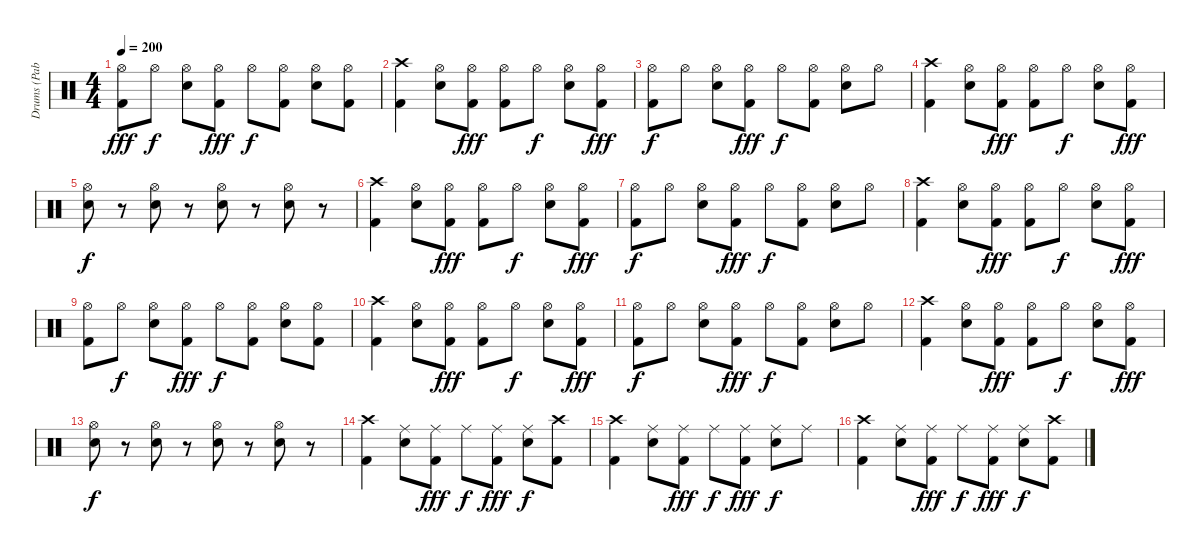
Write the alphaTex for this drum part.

\track ("Drums (Pablo)" "Drums (Pab") {instrument percussion}
\staff {score}
\articulation defaults
\ts (4 4)
\tempo 200
\clef neutral
\ks c
("Hi-Hat (open)" "Kick (hit) 2").8{dy fff} "Hi-Hat (open)".8{dy f} ("Hi-Hat (open)" "Electric Snare (hit)").8 ("Hi-Hat (open)" "Kick (hit) 2").8{dy fff} "Hi-Hat (open)".8{dy f} ("Hi-Hat (open)" "Kick (hit) 2").8 ("Hi-Hat (open)" "Electric Snare (hit)").8 ("Hi-Hat (open)" "Kick (hit) 2").8 |
("Crash high (hit)" "Kick (hit) 2").4 ("Hi-Hat (open)" "Electric Snare (hit)").8 ("Hi-Hat (open)" "Kick (hit) 2").8{dy fff} ("Hi-Hat (open)" "Kick (hit) 2").8 "Hi-Hat (open)".8{dy f} ("Hi-Hat (open)" "Electric Snare (hit)").8 ("Hi-Hat (open)" "Kick (hit) 2").8{dy fff} |
("Hi-Hat (open)" "Kick (hit) 2").8{dy f} "Hi-Hat (open)".8 ("Hi-Hat (open)" "Electric Snare (hit)").8 ("Hi-Hat (open)" "Kick (hit) 2").8{dy fff} "Hi-Hat (open)".8{dy f} ("Hi-Hat (open)" "Kick (hit) 2").8 ("Hi-Hat (open)" "Electric Snare (hit)").8 "Hi-Hat (open)".8 |
("Crash high (hit)" "Kick (hit) 2").4 ("Hi-Hat (open)" "Electric Snare (hit)").8 ("Hi-Hat (open)" "Kick (hit) 2").8{dy fff} ("Hi-Hat (open)" "Kick (hit) 2").8 "Hi-Hat (open)".8{dy f} ("Hi-Hat (open)" "Electric Snare (hit)").8 ("Hi-Hat (open)" "Kick (hit) 2").8{dy fff} |
("Hi-Hat (open)" "Electric Snare (hit)").8{dy f} r.8 ("Hi-Hat (open)" "Electric Snare (hit)").8 r.8 ("Hi-Hat (open)" "Electric Snare (hit)").8 r.8 ("Hi-Hat (open)" "Electric Snare (hit)").8 r.8 |
("Crash high (hit)" "Kick (hit) 2").4 ("Hi-Hat (open)" "Electric Snare (hit)").8 ("Hi-Hat (open)" "Kick (hit) 2").8{dy fff} ("Hi-Hat (open)" "Kick (hit) 2").8 "Hi-Hat (open)".8{dy f} ("Hi-Hat (open)" "Electric Snare (hit)").8 ("Hi-Hat (open)" "Kick (hit) 2").8{dy fff} |
("Hi-Hat (open)" "Kick (hit) 2").8{dy f} "Hi-Hat (open)".8 ("Hi-Hat (open)" "Electric Snare (hit)").8 ("Hi-Hat (open)" "Kick (hit) 2").8{dy fff} "Hi-Hat (open)".8{dy f} ("Hi-Hat (open)" "Kick (hit) 2").8 ("Hi-Hat (open)" "Electric Snare (hit)").8 "Hi-Hat (open)".8 |
("Crash high (hit)" "Kick (hit) 2").4 ("Hi-Hat (open)" "Electric Snare (hit)").8 ("Hi-Hat (open)" "Kick (hit) 2").8{dy fff} ("Hi-Hat (open)" "Kick (hit) 2").8 "Hi-Hat (open)".8{dy f} ("Hi-Hat (open)" "Electric Snare (hit)").8 ("Hi-Hat (open)" "Kick (hit) 2").8{dy fff} |
("Hi-Hat (open)" "Kick (hit) 2").8 "Hi-Hat (open)".8{dy f} ("Hi-Hat (open)" "Electric Snare (hit)").8 ("Hi-Hat (open)" "Kick (hit) 2").8{dy fff} "Hi-Hat (open)".8{dy f} ("Hi-Hat (open)" "Kick (hit) 2").8 ("Hi-Hat (open)" "Electric Snare (hit)").8 ("Hi-Hat (open)" "Kick (hit) 2").8 |
("Crash high (hit)" "Kick (hit) 2").4 ("Hi-Hat (open)" "Electric Snare (hit)").8 ("Hi-Hat (open)" "Kick (hit) 2").8{dy fff} ("Hi-Hat (open)" "Kick (hit) 2").8 "Hi-Hat (open)".8{dy f} ("Hi-Hat (open)" "Electric Snare (hit)").8 ("Hi-Hat (open)" "Kick (hit) 2").8{dy fff} |
("Hi-Hat (open)" "Kick (hit) 2").8{dy f} "Hi-Hat (open)".8 ("Hi-Hat (open)" "Electric Snare (hit)").8 ("Hi-Hat (open)" "Kick (hit) 2").8{dy fff} "Hi-Hat (open)".8{dy f} ("Hi-Hat (open)" "Kick (hit) 2").8 ("Hi-Hat (open)" "Electric Snare (hit)").8 "Hi-Hat (open)".8 |
("Crash high (hit)" "Kick (hit) 2").4 ("Hi-Hat (open)" "Electric Snare (hit)").8 ("Hi-Hat (open)" "Kick (hit) 2").8{dy fff} ("Hi-Hat (open)" "Kick (hit) 2").8 "Hi-Hat (open)".8{dy f} ("Hi-Hat (open)" "Electric Snare (hit)").8 ("Hi-Hat (open)" "Kick (hit) 2").8{dy fff} |
("Hi-Hat (open)" "Electric Snare (hit)").8{dy f} r.8 ("Hi-Hat (open)" "Electric Snare (hit)").8 r.8 ("Hi-Hat (open)" "Electric Snare (hit)").8 r.8 ("Hi-Hat (open)" "Electric Snare (hit)").8 r.8 |
("Crash high (hit)" "Kick (hit) 2").4 ("Ride (middle)" "Electric Snare (hit)").8 ("Ride (middle)" "Kick (hit) 2").8{dy fff} "Ride (middle)".8{dy f} ("Ride (middle)" "Kick (hit) 2").8{dy fff} ("Ride (middle)" "Electric Snare (hit)").8{dy f} ("Crash high (hit)" "Kick (hit) 2").8 |
("Crash high (hit)" "Kick (hit) 2").4 ("Ride (middle)" "Electric Snare (hit)").8 ("Ride (middle)" "Kick (hit) 2").8{dy fff} "Ride (middle)".8{dy f} ("Ride (middle)" "Kick (hit) 2").8{dy fff} ("Ride (middle)" "Electric Snare (hit)").8{dy f} "Ride (middle)".8 |
("Crash high (hit)" "Kick (hit) 2").4 ("Ride (middle)" "Electric Snare (hit)").8 ("Ride (middle)" "Kick (hit) 2").8{dy fff} "Ride (middle)".8{dy f} ("Ride (middle)" "Kick (hit) 2").8{dy fff} ("Ride (middle)" "Electric Snare (hit)").8{dy f} ("Crash high (hit)" "Kick (hit) 2").8
